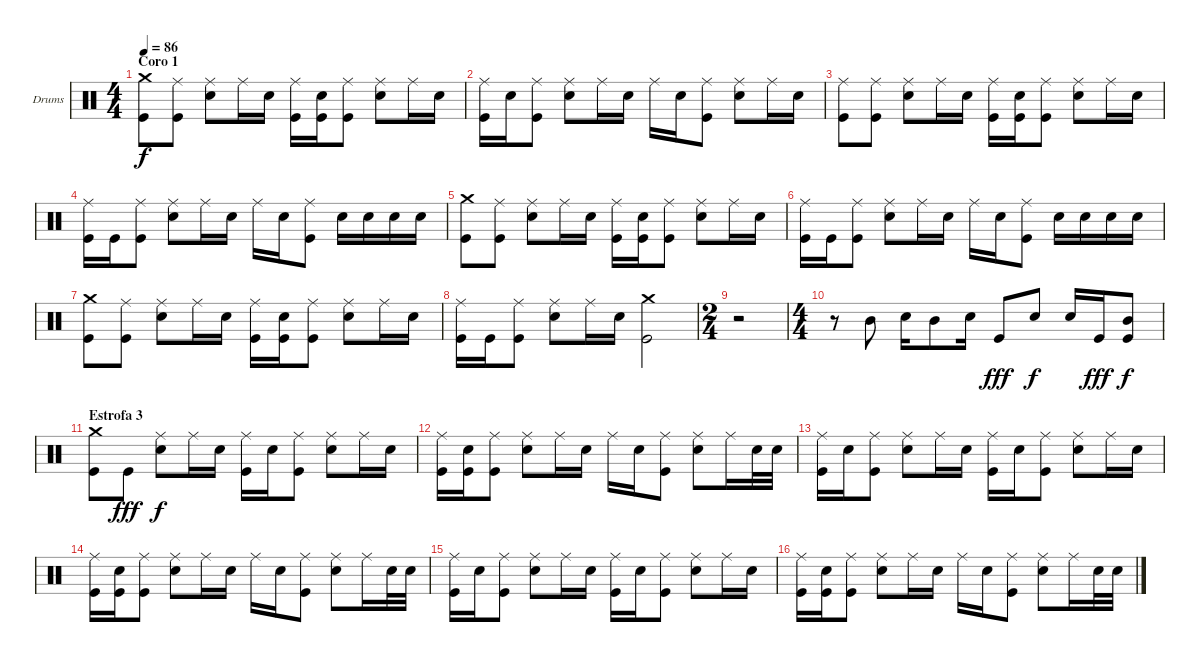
\defaultSystemsLayout 4
\bracketExtendMode groupsimilarinstruments
\firstSystemTrackNameOrientation horizontal
\otherSystemsTrackNameOrientation horizontal
\track ("Drumkit" "Drums") {instrument percussion}
\staff {score}
\articulation defaults
\ts (4 4)
\section ("" "Coro 1")
\tempo 86
\clef neutral
\ks c
("Crash medium (hit)" "Kick (hit)").8{dy f} ("Ride (middle)" "Kick (hit)").8 ("Ride (middle)" "Snare (hit) 2").8 "Ride (middle)".16 "Snare (hit) 2".16 ("Ride (middle)" "Kick (hit)").16 ("Snare (hit) 2" "Kick (hit)").16 ("Ride (middle)" "Kick (hit)").8 ("Ride (middle)" "Snare (hit) 2").8 "Ride (middle)".16 "Snare (hit) 2".16 |
("Ride (middle)" "Kick (hit)").16 "Snare (hit) 2".16 ("Ride (middle)" "Kick (hit)").8 ("Ride (middle)" "Snare (hit) 2").8 "Ride (middle)".16 "Snare (hit) 2".16 "Ride (middle)".16 "Snare (hit) 2".16 ("Ride (middle)" "Kick (hit)").8 ("Ride (middle)" "Snare (hit) 2").8 "Ride (middle)".16 "Snare (hit) 2".16 |
("Ride (middle)" "Kick (hit)").8 ("Ride (middle)" "Kick (hit)").8 ("Ride (middle)" "Snare (hit) 2").8 "Ride (middle)".16 "Snare (hit) 2".16 ("Ride (middle)" "Kick (hit)").16 ("Snare (hit) 2" "Kick (hit)").16 ("Ride (middle)" "Kick (hit)").8 ("Ride (middle)" "Snare (hit) 2").8 "Ride (middle)".16 "Snare (hit) 2".16 |
("Ride (middle)" "Kick (hit)").16 "Kick (hit)".16 ("Ride (middle)" "Kick (hit)").8 ("Ride (middle)" "Snare (hit) 2").8 "Ride (middle)".16 "Snare (hit) 2".16 "Ride (middle)".16 "Snare (hit) 2".16 ("Ride (middle)" "Kick (hit)").8 "Snare (hit) 2".16 "Snare (hit) 2".16 "Snare (hit) 2".16 "Snare (hit) 2".16 |
("Crash medium (hit)" "Kick (hit)").8 ("Ride (middle)" "Kick (hit)").8 ("Ride (middle)" "Snare (hit) 2").8 "Ride (middle)".16 "Snare (hit) 2".16 ("Ride (middle)" "Kick (hit)").16 ("Snare (hit) 2" "Kick (hit)").16 ("Ride (middle)" "Kick (hit)").8 ("Ride (middle)" "Snare (hit) 2").8 "Ride (middle)".16 "Snare (hit) 2".16 |
("Ride (middle)" "Kick (hit)").16 "Kick (hit)".16 ("Ride (middle)" "Kick (hit)").8 ("Ride (middle)" "Snare (hit) 2").8 "Ride (middle)".16 "Snare (hit) 2".16 "Ride (middle)".16 "Snare (hit) 2".16 ("Ride (middle)" "Kick (hit)").8 "Snare (hit) 2".16 "Snare (hit) 2".16 "Snare (hit) 2".16 "Snare (hit) 2".16 |
("Crash medium (hit)" "Kick (hit)").8 ("Ride (middle)" "Kick (hit)").8 ("Ride (middle)" "Snare (hit) 2").8 "Ride (middle)".16 "Snare (hit) 2".16 ("Ride (middle)" "Kick (hit)").16 ("Snare (hit) 2" "Kick (hit)").16 ("Ride (middle)" "Kick (hit)").8 ("Ride (middle)" "Snare (hit) 2").8 "Ride (middle)".16 "Snare (hit) 2".16 |
("Ride (middle)" "Kick (hit)").16 "Kick (hit)".16 ("Ride (middle)" "Kick (hit)").8 ("Ride (middle)" "Snare (hit) 2").8 "Ride (middle)".16 "Snare (hit) 2".16 ("Crash medium (hit)" "Kick (hit)").2 |
\ts (2 4)
r.2 |
\ts (4 4)
r.8 "Mid Tom (hit)".8 "Snare (hit) 2".16 "Mid Tom (hit)".8 "Snare (hit) 2".16 "Kick (hit)".8{dy fff} "Snare (hit) 2".8{dy f} "Snare (hit) 2".16 "Kick (hit)".16{dy fff} ("Mid Tom (hit)" "Kick (hit)").8{dy f} |
\section ("" "Estrofa 3")
("Crash medium (hit)" "Kick (hit)").8 "Kick (hit)".8{dy fff} ("Ride (middle)" "Snare (hit) 2").8{dy f} "Ride (middle)".16 "Snare (hit) 2".16 ("Ride (middle)" "Kick (hit)").16 "Snare (hit) 2".16 ("Ride (middle)" "Kick (hit)").8 ("Ride (middle)" "Snare (hit) 2").8 "Ride (middle)".16 "Snare (hit) 2".16 |
("Ride (middle)" "Kick (hit)").16 ("Snare (hit) 2" "Kick (hit)").16 ("Ride (middle)" "Kick (hit)").8 ("Ride (middle)" "Snare (hit) 2").8 "Ride (middle)".16 "Snare (hit) 2".16 "Ride (middle)".16 "Snare (hit) 2".16 ("Ride (middle)" "Kick (hit)").8 ("Ride (middle)" "Snare (hit) 2").8 "Ride (middle)".16 "Snare (hit) 2".32 "Snare (hit) 2".32 |
("Ride (middle)" "Kick (hit)").16 "Snare (hit) 2".16 ("Ride (middle)" "Kick (hit)").8 ("Ride (middle)" "Snare (hit) 2").8 "Ride (middle)".16 "Snare (hit) 2".16 ("Ride (middle)" "Kick (hit)").16 "Snare (hit) 2".16 ("Ride (middle)" "Kick (hit)").8 ("Ride (middle)" "Snare (hit) 2").8 "Ride (middle)".16 "Snare (hit) 2".16 |
("Ride (middle)" "Kick (hit)").16 ("Snare (hit) 2" "Kick (hit)").16 ("Ride (middle)" "Kick (hit)").8 ("Ride (middle)" "Snare (hit) 2").8 "Ride (middle)".16 "Snare (hit) 2".16 "Ride (middle)".16 "Snare (hit) 2".16 ("Ride (middle)" "Kick (hit)").8 ("Ride (middle)" "Snare (hit) 2").8 "Ride (middle)".16 "Snare (hit) 2".32 "Snare (hit) 2".32 |
("Ride (middle)" "Kick (hit)").16 "Snare (hit) 2".16 ("Ride (middle)" "Kick (hit)").8 ("Ride (middle)" "Snare (hit) 2").8 "Ride (middle)".16 "Snare (hit) 2".16 ("Ride (middle)" "Kick (hit)").16 "Snare (hit) 2".16 ("Ride (middle)" "Kick (hit)").8 ("Ride (middle)" "Snare (hit) 2").8 "Ride (middle)".16 "Snare (hit) 2".16 |
("Ride (middle)" "Kick (hit)").16 ("Snare (hit) 2" "Kick (hit)").16 ("Ride (middle)" "Kick (hit)").8 ("Ride (middle)" "Snare (hit) 2").8 "Ride (middle)".16 "Snare (hit) 2".16 "Ride (middle)".16 "Snare (hit) 2".16 ("Ride (middle)" "Kick (hit)").8 ("Ride (middle)" "Snare (hit) 2").8 "Ride (middle)".16 "Snare (hit) 2".32 "Snare (hit) 2".32
